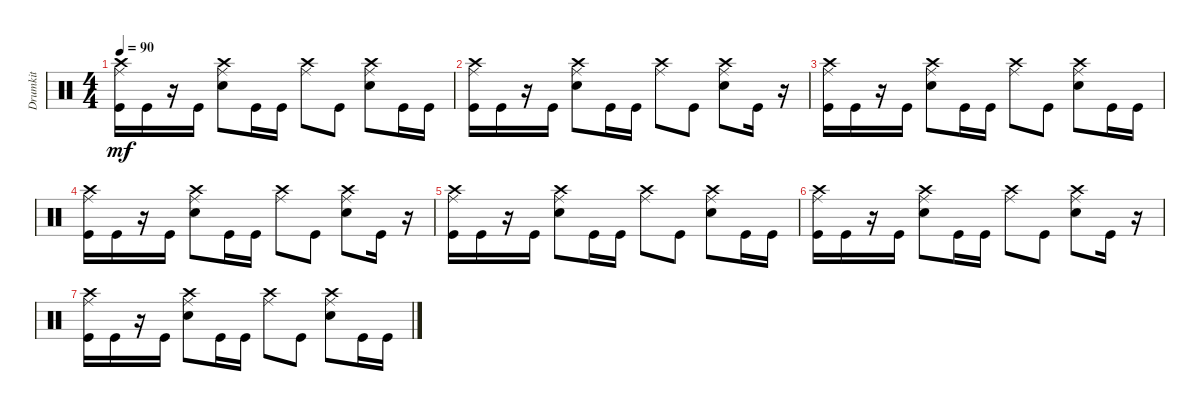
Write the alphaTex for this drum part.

\track ("Drumkit" "Drumkit") {instrument percussion}
\staff {score}
\articulation defaults
\ts (4 4)
\tempo 90
\clef neutral
\ks c
("Kick (hit)" "Crash high (hit)" "Ride (middle)").16{dy mf} "Kick (hit)".16 r.16 "Kick (hit)".16 ("Snare (hit) 2" "Crash high (hit)" "Ride (middle)").8 "Kick (hit)".16 "Kick (hit)".16 ("Crash high (hit)" "Ride (middle)").8 "Kick (hit)".8 ("Snare (hit) 2" "Crash high (hit)" "Ride (middle)").8 "Kick (hit)".16 "Kick (hit)".16 |
("Kick (hit)" "Crash high (hit)" "Ride (middle)").16 "Kick (hit)".16 r.16 "Kick (hit)".16 ("Snare (hit) 2" "Crash high (hit)" "Ride (middle)").8 "Kick (hit)".16 "Kick (hit)".16 ("Crash high (hit)" "Ride (middle)").8 "Kick (hit)".8 ("Snare (hit) 2" "Crash high (hit)" "Ride (middle)").8 "Kick (hit)".16 r.16 |
("Kick (hit)" "Crash high (hit)" "Ride (middle)").16 "Kick (hit)".16 r.16 "Kick (hit)".16 ("Snare (hit) 2" "Crash high (hit)" "Ride (middle)").8 "Kick (hit)".16 "Kick (hit)".16 ("Crash high (hit)" "Ride (middle)").8 "Kick (hit)".8 ("Snare (hit) 2" "Crash high (hit)" "Ride (middle)").8 "Kick (hit)".16 "Kick (hit)".16 |
("Kick (hit)" "Crash high (hit)" "Ride (middle)").16 "Kick (hit)".16 r.16 "Kick (hit)".16 ("Snare (hit) 2" "Crash high (hit)" "Ride (middle)").8 "Kick (hit)".16 "Kick (hit)".16 ("Crash high (hit)" "Ride (middle)").8 "Kick (hit)".8 ("Snare (hit) 2" "Crash high (hit)" "Ride (middle)").8 "Kick (hit)".16 r.16 |
("Kick (hit)" "Crash high (hit)" "Ride (middle)").16 "Kick (hit)".16 r.16 "Kick (hit)".16 ("Snare (hit) 2" "Crash high (hit)" "Ride (middle)").8 "Kick (hit)".16 "Kick (hit)".16 ("Crash high (hit)" "Ride (middle)").8 "Kick (hit)".8 ("Snare (hit) 2" "Crash high (hit)" "Ride (middle)").8 "Kick (hit)".16 "Kick (hit)".16 |
("Kick (hit)" "Crash high (hit)" "Ride (middle)").16 "Kick (hit)".16 r.16 "Kick (hit)".16 ("Snare (hit) 2" "Crash high (hit)" "Ride (middle)").8 "Kick (hit)".16 "Kick (hit)".16 ("Crash high (hit)" "Ride (middle)").8 "Kick (hit)".8 ("Snare (hit) 2" "Crash high (hit)" "Ride (middle)").8 "Kick (hit)".16 r.16 |
("Kick (hit)" "Crash high (hit)" "Ride (middle)").16 "Kick (hit)".16 r.16 "Kick (hit)".16 ("Snare (hit) 2" "Crash high (hit)" "Ride (middle)").8 "Kick (hit)".16 "Kick (hit)".16 ("Crash high (hit)" "Ride (middle)").8 "Kick (hit)".8 ("Snare (hit) 2" "Crash high (hit)" "Ride (middle)").8 "Kick (hit)".16 "Kick (hit)".16
